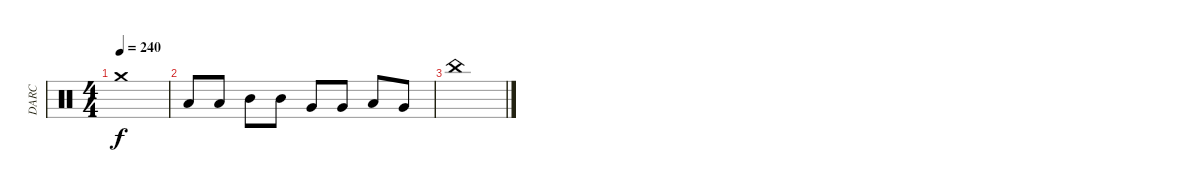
\track ("DARC" "DARC") {instrument percussion}
\staff {score}
\articulation defaults
\ts (4 4)
\tempo 240
\clef neutral
\ks c "Crash medium (hit)".1{dy f}
|
"Low Tom (hit)".8 "Low Tom (hit)".8 "Mid Tom (hit)".8 "Mid Tom (hit)".8 "Very Low Tom (hit)".8 "Very Low Tom (hit)".8 "Low Floor Tom (hit)".8 "Very Low Tom (hit)".8 |
"China (hit)".1
